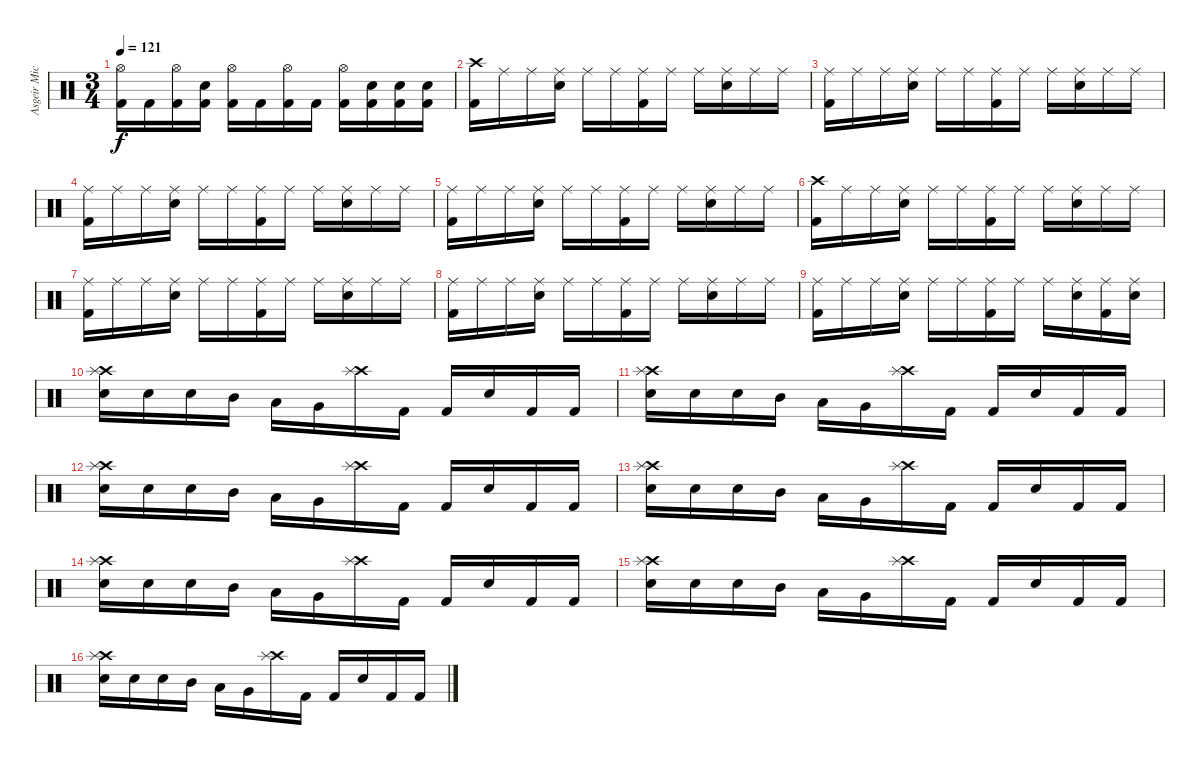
\track ("Asgeir Mickelson" "Asgeir Mic") {instrument percussion}
\staff {score}
\articulation defaults
\ts (3 4)
\tempo 121
\clef neutral
\ks c
("Hi-Hat (open)" "Kick (hit) 2").16{dy f} "Kick (hit) 2".16 ("Hi-Hat (open)" "Kick (hit) 2").16 ("Electric Snare (hit)" "Kick (hit) 2").16 ("Hi-Hat (open)" "Kick (hit) 2").16 "Kick (hit) 2".16 ("Hi-Hat (open)" "Kick (hit) 2").16 "Kick (hit) 2".16 ("Hi-Hat (open)" "Kick (hit) 2").16 ("Electric Snare (hit)" "Kick (hit) 2").16 ("Electric Snare (hit)" "Kick (hit) 2").16 ("Electric Snare (hit)" "Kick (hit) 2").16 |
("Crash high (hit)" "Kick (hit) 2").16 "Ride (middle)".16 "Ride (middle)".16 ("Ride (middle)" "Electric Snare (hit)").16 "Ride (middle)".16 "Ride (middle)".16 ("Ride (middle)" "Kick (hit) 2").16 "Ride (middle)".16 "Ride (middle)".16 ("Ride (middle)" "Electric Snare (hit)").16 "Ride (middle)".16 "Ride (middle)".16 |
("Ride (middle)" "Kick (hit) 2").16 "Ride (middle)".16 "Ride (middle)".16 ("Ride (middle)" "Electric Snare (hit)").16 "Ride (middle)".16 "Ride (middle)".16 ("Ride (middle)" "Kick (hit) 2").16 "Ride (middle)".16 "Ride (middle)".16 ("Ride (middle)" "Electric Snare (hit)").16 "Ride (middle)".16 "Ride (middle)".16 |
("Ride (middle)" "Kick (hit) 2").16 "Ride (middle)".16 "Ride (middle)".16 ("Ride (middle)" "Electric Snare (hit)").16 "Ride (middle)".16 "Ride (middle)".16 ("Ride (middle)" "Kick (hit) 2").16 "Ride (middle)".16 "Ride (middle)".16 ("Ride (middle)" "Electric Snare (hit)").16 "Ride (middle)".16 "Ride (middle)".16 |
("Ride (middle)" "Kick (hit) 2").16 "Ride (middle)".16 "Ride (middle)".16 ("Ride (middle)" "Electric Snare (hit)").16 "Ride (middle)".16 "Ride (middle)".16 ("Ride (middle)" "Kick (hit) 2").16 "Ride (middle)".16 "Ride (middle)".16 ("Ride (middle)" "Electric Snare (hit)").16 "Ride (middle)".16 "Ride (middle)".16 |
("Crash high (hit)" "Kick (hit) 2").16 "Ride (middle)".16 "Ride (middle)".16 ("Ride (middle)" "Electric Snare (hit)").16 "Ride (middle)".16 "Ride (middle)".16 ("Ride (middle)" "Kick (hit) 2").16 "Ride (middle)".16 "Ride (middle)".16 ("Ride (middle)" "Electric Snare (hit)").16 "Ride (middle)".16 "Ride (middle)".16 |
("Ride (middle)" "Kick (hit) 2").16 "Ride (middle)".16 "Ride (middle)".16 ("Ride (middle)" "Electric Snare (hit)").16 "Ride (middle)".16 "Ride (middle)".16 ("Ride (middle)" "Kick (hit) 2").16 "Ride (middle)".16 "Ride (middle)".16 ("Ride (middle)" "Electric Snare (hit)").16 "Ride (middle)".16 "Ride (middle)".16 |
("Ride (middle)" "Kick (hit) 2").16 "Ride (middle)".16 "Ride (middle)".16 ("Ride (middle)" "Electric Snare (hit)").16 "Ride (middle)".16 "Ride (middle)".16 ("Ride (middle)" "Kick (hit) 2").16 "Ride (middle)".16 "Ride (middle)".16 ("Ride (middle)" "Electric Snare (hit)").16 "Ride (middle)".16 "Ride (middle)".16 |
("Ride (middle)" "Kick (hit) 2").16 "Ride (middle)".16 "Ride (middle)".16 ("Ride (middle)" "Electric Snare (hit)").16 "Ride (middle)".16 "Ride (middle)".16 ("Ride (middle)" "Kick (hit) 2").16 "Ride (middle)".16 "Ride (middle)".16 ("Ride (middle)" "Electric Snare (hit)").16 ("Ride (middle)" "Kick (hit) 2").16 ("Ride (middle)" "Electric Snare (hit)").16 |
("Crash high (hit)" "Splash (hit)" "Electric Snare (hit)").16 "Electric Snare (hit)".16 "Electric Snare (hit)".16 "Mid Tom (hit)".16 "Low Tom (hit)".16 "Very Low Tom (hit)".16 ("Crash high (hit)" "Splash (hit)").16 "Kick (hit) 2".16 "Kick (hit) 2".16 "Electric Snare (hit)".16 "Kick (hit) 2".16 "Kick (hit) 2".16 |
("Crash high (hit)" "Splash (hit)" "Electric Snare (hit)").16 "Electric Snare (hit)".16 "Electric Snare (hit)".16 "Mid Tom (hit)".16 "Low Tom (hit)".16 "Very Low Tom (hit)".16 ("Crash high (hit)" "Splash (hit)").16 "Kick (hit) 2".16 "Kick (hit) 2".16 "Electric Snare (hit)".16 "Kick (hit) 2".16 "Kick (hit) 2".16 |
("Crash high (hit)" "Splash (hit)" "Electric Snare (hit)").16 "Electric Snare (hit)".16 "Electric Snare (hit)".16 "Mid Tom (hit)".16 "Low Tom (hit)".16 "Very Low Tom (hit)".16 ("Crash high (hit)" "Splash (hit)").16 "Kick (hit) 2".16 "Kick (hit) 2".16 "Electric Snare (hit)".16 "Kick (hit) 2".16 "Kick (hit) 2".16 |
("Crash high (hit)" "Splash (hit)" "Electric Snare (hit)").16 "Electric Snare (hit)".16 "Electric Snare (hit)".16 "Mid Tom (hit)".16 "Low Tom (hit)".16 "Very Low Tom (hit)".16 ("Crash high (hit)" "Splash (hit)").16 "Kick (hit) 2".16 "Kick (hit) 2".16 "Electric Snare (hit)".16 "Kick (hit) 2".16 "Kick (hit) 2".16 |
("Crash high (hit)" "Splash (hit)" "Electric Snare (hit)").16 "Electric Snare (hit)".16 "Electric Snare (hit)".16 "Mid Tom (hit)".16 "Low Tom (hit)".16 "Very Low Tom (hit)".16 ("Crash high (hit)" "Splash (hit)").16 "Kick (hit) 2".16 "Kick (hit) 2".16 "Electric Snare (hit)".16 "Kick (hit) 2".16 "Kick (hit) 2".16 |
("Crash high (hit)" "Splash (hit)" "Electric Snare (hit)").16 "Electric Snare (hit)".16 "Electric Snare (hit)".16 "Mid Tom (hit)".16 "Low Tom (hit)".16 "Very Low Tom (hit)".16 ("Crash high (hit)" "Splash (hit)").16 "Kick (hit) 2".16 "Kick (hit) 2".16 "Electric Snare (hit)".16 "Kick (hit) 2".16 "Kick (hit) 2".16 |
("Crash high (hit)" "Splash (hit)" "Electric Snare (hit)").16 "Electric Snare (hit)".16 "Electric Snare (hit)".16 "Mid Tom (hit)".16 "Low Tom (hit)".16 "Very Low Tom (hit)".16 ("Crash high (hit)" "Splash (hit)").16 "Kick (hit) 2".16 "Kick (hit) 2".16 "Electric Snare (hit)".16 "Kick (hit) 2".16 "Kick (hit) 2".16
